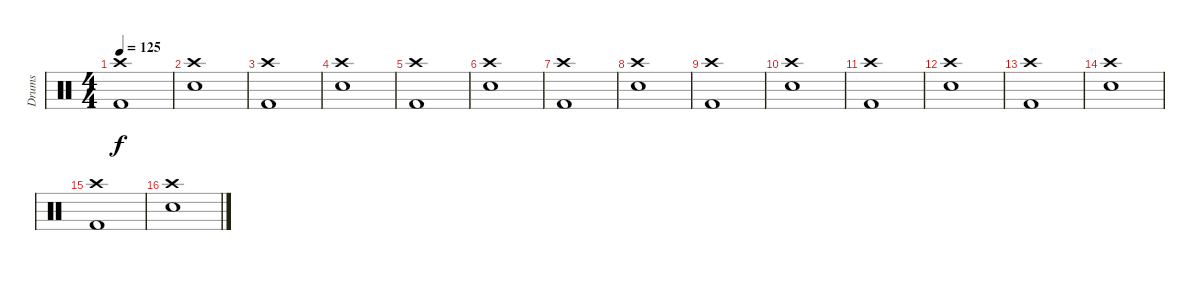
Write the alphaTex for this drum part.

\track ("Drums" "Drums") {instrument percussion}
\staff {score}
\articulation defaults
\ts (4 4)
\tempo 125
\clef neutral
\ks c
("Crash high (hit)" "Kick (hit) 2").1{dy f} |
("Crash high (hit)" "Snare (hit) 2").1 |
("Crash high (hit)" "Kick (hit) 2").1 |
("Crash high (hit)" "Snare (hit) 2").1 |
("Crash high (hit)" "Kick (hit) 2").1 |
("Crash high (hit)" "Snare (hit) 2").1 |
("Crash high (hit)" "Kick (hit) 2").1 |
("Crash high (hit)" "Snare (hit) 2").1 |
("Crash high (hit)" "Kick (hit) 2").1 |
("Crash high (hit)" "Snare (hit) 2").1 |
("Crash high (hit)" "Kick (hit) 2").1 |
("Crash high (hit)" "Snare (hit) 2").1 |
("Crash high (hit)" "Kick (hit) 2").1 |
("Crash high (hit)" "Snare (hit) 2").1 |
("Crash high (hit)" "Kick (hit) 2").1 |
("Crash high (hit)" "Snare (hit) 2").1
